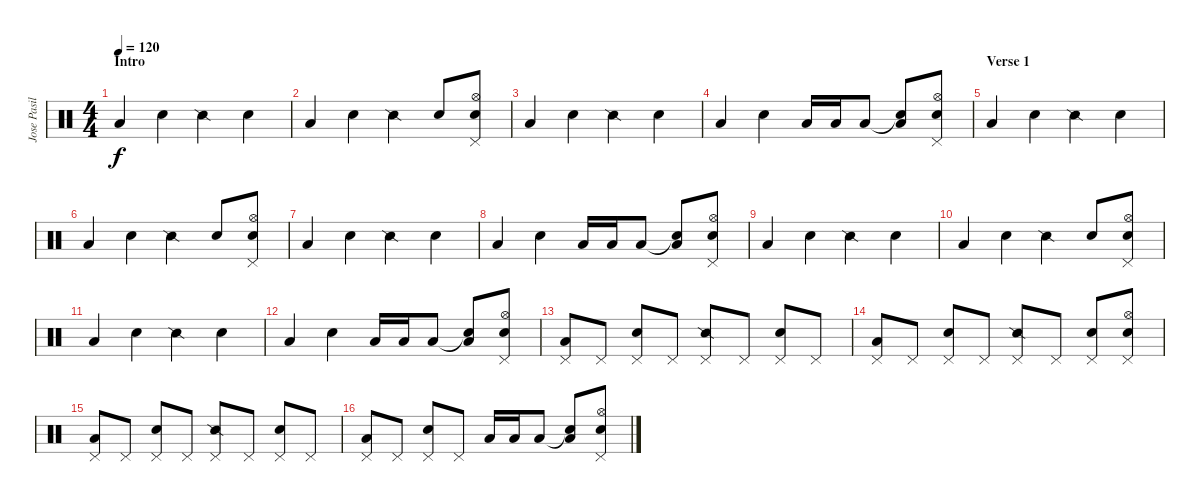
\track ("Jose Pasillas II" "Jose Pasil") {instrument percussion}
\staff {score}
\articulation defaults
\ts (4 4)
\section ("" "Intro")
\tempo 120
\clef neutral
\ks c "Low Floor Tom (hit)".4{dy f} "Electric Snare (hit)".4 "Snare (side stick) 2".4 "Electric Snare (hit)".4
|
"Low Floor Tom (hit)".4 "Electric Snare (hit)".4 "Snare (side stick) 2".4 "Electric Snare (hit)".8 ("Hi-Hat (open)" "Pedal Hi-Hat (hit)" "Electric Snare (hit)").8 |
"Low Floor Tom (hit)".4 "Electric Snare (hit)".4 "Snare (side stick) 2".4 "Electric Snare (hit)".4 |
"Low Floor Tom (hit)".4 "Electric Snare (hit)".4 "Low Tom (hit)".16 "Low Tom (hit)".16 "Low Floor Tom (hit)".8 ("Snare (hit)"{t} "Low Tom (hit)").8 ("Hi-Hat (open)" "Pedal Hi-Hat (hit)" "Electric Snare (hit)").8 |
\section ("" "Verse 1")
"Low Floor Tom (hit)".4 "Electric Snare (hit)".4 "Snare (side stick) 2".4 "Electric Snare (hit)".4 |
"Low Floor Tom (hit)".4 "Electric Snare (hit)".4 "Snare (side stick) 2".4 "Electric Snare (hit)".8 ("Hi-Hat (open)" "Pedal Hi-Hat (hit)" "Electric Snare (hit)").8 |
"Low Floor Tom (hit)".4 "Electric Snare (hit)".4 "Snare (side stick) 2".4 "Electric Snare (hit)".4 |
"Low Floor Tom (hit)".4 "Electric Snare (hit)".4 "Low Tom (hit)".16 "Low Tom (hit)".16 "Low Floor Tom (hit)".8 ("Snare (hit)"{t} "Low Tom (hit)").8 ("Hi-Hat (open)" "Pedal Hi-Hat (hit)" "Electric Snare (hit)").8 |
"Low Floor Tom (hit)".4 "Electric Snare (hit)".4 "Snare (side stick) 2".4 "Electric Snare (hit)".4 |
"Low Floor Tom (hit)".4 "Electric Snare (hit)".4 "Snare (side stick) 2".4 "Electric Snare (hit)".8 ("Hi-Hat (open)" "Pedal Hi-Hat (hit)" "Electric Snare (hit)").8 |
"Low Floor Tom (hit)".4 "Electric Snare (hit)".4 "Snare (side stick) 2".4 "Electric Snare (hit)".4 |
"Low Floor Tom (hit)".4 "Electric Snare (hit)".4 "Low Tom (hit)".16 "Low Tom (hit)".16 "Low Floor Tom (hit)".8 ("Snare (hit)"{t} "Low Tom (hit)").8 ("Hi-Hat (open)" "Pedal Hi-Hat (hit)" "Electric Snare (hit)").8 |
("Pedal Hi-Hat (hit)" "Low Floor Tom (hit)").8 "Pedal Hi-Hat (hit)".8 ("Pedal Hi-Hat (hit)" "Electric Snare (hit)").8 "Pedal Hi-Hat (hit)".8 ("Pedal Hi-Hat (hit)" "Snare (side stick) 2").8 "Pedal Hi-Hat (hit)".8 ("Pedal Hi-Hat (hit)" "Electric Snare (hit)").8 "Pedal Hi-Hat (hit)".8 |
("Pedal Hi-Hat (hit)" "Low Floor Tom (hit)").8 "Pedal Hi-Hat (hit)".8 ("Pedal Hi-Hat (hit)" "Electric Snare (hit)").8 "Pedal Hi-Hat (hit)".8 ("Pedal Hi-Hat (hit)" "Snare (side stick) 2").8 "Pedal Hi-Hat (hit)".8 ("Pedal Hi-Hat (hit)" "Electric Snare (hit)").8 ("Pedal Hi-Hat (hit)" "Hi-Hat (open)" "Electric Snare (hit)").8 |
("Pedal Hi-Hat (hit)" "Low Floor Tom (hit)").8 "Pedal Hi-Hat (hit)".8 ("Pedal Hi-Hat (hit)" "Electric Snare (hit)").8 "Pedal Hi-Hat (hit)".8 ("Pedal Hi-Hat (hit)" "Snare (side stick) 2").8 "Pedal Hi-Hat (hit)".8 ("Pedal Hi-Hat (hit)" "Electric Snare (hit)").8 "Pedal Hi-Hat (hit)".8 |
("Pedal Hi-Hat (hit)" "Low Floor Tom (hit)").8 "Pedal Hi-Hat (hit)".8 ("Pedal Hi-Hat (hit)" "Electric Snare (hit)").8 "Pedal Hi-Hat (hit)".8 "Low Tom (hit)".16 "Low Tom (hit)".16 "Low Floor Tom (hit)".8 ("Snare (hit)"{t} "Low Tom (hit)").8 ("Hi-Hat (open)" "Pedal Hi-Hat (hit)" "Electric Snare (hit)").8
